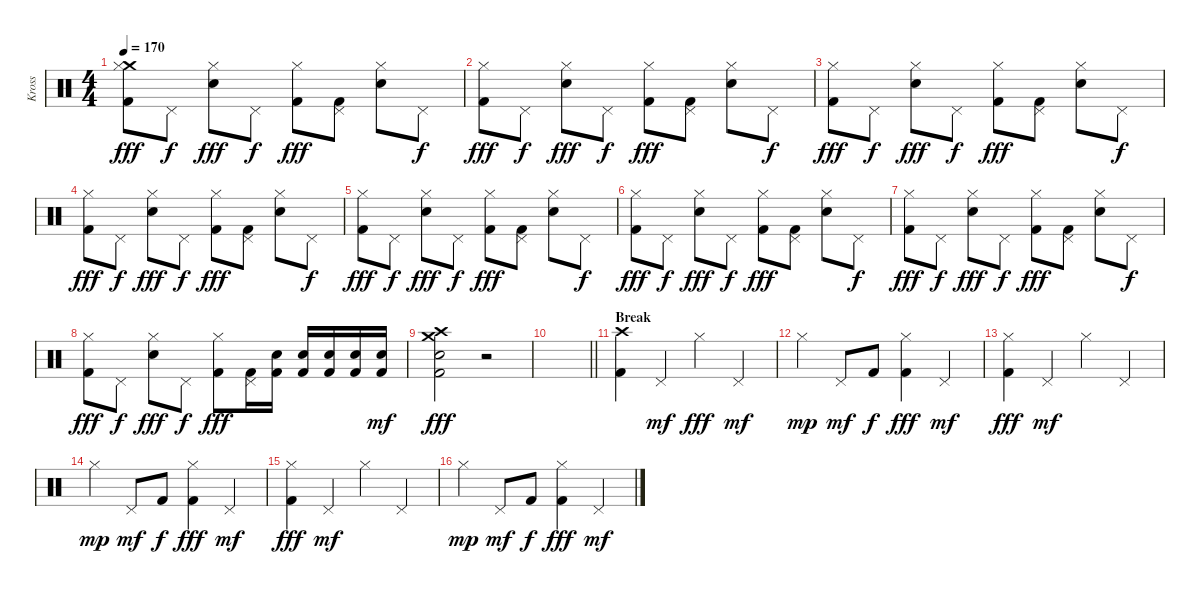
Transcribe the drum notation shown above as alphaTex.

\track ("Kross" "Kross") {instrument percussion}
\staff {score}
\articulation defaults
\ts (4 4)
\tempo 170
\clef neutral
\ks c
("Crash medium (hit)" "Hi-Hat (closed)" "Kick (hit) 2").8{dy fff} "Pedal Hi-Hat (hit)".8{dy f} ("Hi-Hat (closed)" "Snare (hit) 2").8{dy fff} "Pedal Hi-Hat (hit)".8{dy f} ("Hi-Hat (closed)" "Kick (hit) 2").8{dy fff} ("Pedal Hi-Hat (hit)" "Kick (hit) 2").8 ("Hi-Hat (closed)" "Snare (hit) 2").8 "Pedal Hi-Hat (hit)".8{dy f} |
("Hi-Hat (closed)" "Kick (hit) 2").8{dy fff} "Pedal Hi-Hat (hit)".8{dy f} ("Hi-Hat (closed)" "Snare (hit) 2").8{dy fff} "Pedal Hi-Hat (hit)".8{dy f} ("Hi-Hat (closed)" "Kick (hit) 2").8{dy fff} ("Pedal Hi-Hat (hit)" "Kick (hit) 2").8 ("Hi-Hat (closed)" "Snare (hit) 2").8 "Pedal Hi-Hat (hit)".8{dy f} |
("Hi-Hat (closed)" "Kick (hit) 2").8{dy fff} "Pedal Hi-Hat (hit)".8{dy f} ("Hi-Hat (closed)" "Snare (hit) 2").8{dy fff} "Pedal Hi-Hat (hit)".8{dy f} ("Hi-Hat (closed)" "Kick (hit) 2").8{dy fff} ("Pedal Hi-Hat (hit)" "Kick (hit) 2").8 ("Hi-Hat (closed)" "Snare (hit) 2").8 "Pedal Hi-Hat (hit)".8{dy f} |
("Hi-Hat (closed)" "Kick (hit) 2").8{dy fff} "Pedal Hi-Hat (hit)".8{dy f} ("Hi-Hat (closed)" "Snare (hit) 2").8{dy fff} "Pedal Hi-Hat (hit)".8{dy f} ("Hi-Hat (closed)" "Kick (hit) 2").8{dy fff} ("Pedal Hi-Hat (hit)" "Kick (hit) 2").8 ("Hi-Hat (closed)" "Snare (hit) 2").8 "Pedal Hi-Hat (hit)".8{dy f} |
("Hi-Hat (closed)" "Kick (hit) 2").8{dy fff} "Pedal Hi-Hat (hit)".8{dy f} ("Hi-Hat (closed)" "Snare (hit) 2").8{dy fff} "Pedal Hi-Hat (hit)".8{dy f} ("Hi-Hat (closed)" "Kick (hit) 2").8{dy fff} ("Pedal Hi-Hat (hit)" "Kick (hit) 2").8 ("Hi-Hat (closed)" "Snare (hit) 2").8 "Pedal Hi-Hat (hit)".8{dy f} |
("Hi-Hat (closed)" "Kick (hit) 2").8{dy fff} "Pedal Hi-Hat (hit)".8{dy f} ("Hi-Hat (closed)" "Snare (hit) 2").8{dy fff} "Pedal Hi-Hat (hit)".8{dy f} ("Hi-Hat (closed)" "Kick (hit) 2").8{dy fff} ("Pedal Hi-Hat (hit)" "Kick (hit) 2").8 ("Hi-Hat (closed)" "Snare (hit) 2").8 "Pedal Hi-Hat (hit)".8{dy f} |
("Hi-Hat (closed)" "Kick (hit) 2").8{dy fff} "Pedal Hi-Hat (hit)".8{dy f} ("Hi-Hat (closed)" "Snare (hit) 2").8{dy fff} "Pedal Hi-Hat (hit)".8{dy f} ("Hi-Hat (closed)" "Kick (hit) 2").8{dy fff} ("Pedal Hi-Hat (hit)" "Kick (hit) 2").8 ("Hi-Hat (closed)" "Snare (hit) 2").8 "Pedal Hi-Hat (hit)".8{dy f} |
("Hi-Hat (closed)" "Kick (hit) 2").8{dy fff} "Pedal Hi-Hat (hit)".8{dy f} ("Hi-Hat (closed)" "Snare (hit) 2").8{dy fff} "Pedal Hi-Hat (hit)".8{dy f} ("Hi-Hat (closed)" "Kick (hit) 2").8{dy fff} ("Pedal Hi-Hat (hit)" "Kick (hit) 2").16 ("Electric Snare (hit)" "Kick (hit) 2").16 ("Electric Snare (hit)" "Kick (hit) 2").16 ("Electric Snare (hit)" "Kick (hit) 2").16 ("Electric Snare (hit)" "Kick (hit) 2").16 ("Electric Snare (hit)" "Kick (hit) 2").16{dy mf} |
("Crash medium (hit)" "Crash high (hit)" "Electric Snare (hit)" "Kick (hit) 2").2{dy fff} r.2 |
\barLineRight lightlight
|
\section ("" "Break")
("Crash high (hit)" "Kick (hit) 2").4 "Pedal Hi-Hat (hit)".4{dy mf} "Hi-Hat (closed)".4{dy fff} "Pedal Hi-Hat (hit)".4{dy mf} |
"Hi-Hat (closed)".4{dy mp} "Pedal Hi-Hat (hit)".8{dy mf} "Kick (hit) 2".8{dy f} ("Hi-Hat (closed)" "Kick (hit) 2").4{dy fff} "Pedal Hi-Hat (hit)".4{dy mf} |
("Hi-Hat (closed)" "Kick (hit) 2").4{dy fff} "Pedal Hi-Hat (hit)".4{dy mf} "Hi-Hat (closed)".4 "Pedal Hi-Hat (hit)".4 |
"Hi-Hat (closed)".4{dy mp} "Pedal Hi-Hat (hit)".8{dy mf} "Kick (hit) 2".8{dy f} ("Hi-Hat (closed)" "Kick (hit) 2").4{dy fff} "Pedal Hi-Hat (hit)".4{dy mf} |
("Hi-Hat (closed)" "Kick (hit) 2").4{dy fff} "Pedal Hi-Hat (hit)".4{dy mf} "Hi-Hat (closed)".4 "Pedal Hi-Hat (hit)".4 |
"Hi-Hat (closed)".4{dy mp} "Pedal Hi-Hat (hit)".8{dy mf} "Kick (hit) 2".8{dy f} ("Hi-Hat (closed)" "Kick (hit) 2").4{dy fff} "Pedal Hi-Hat (hit)".4{dy mf}
